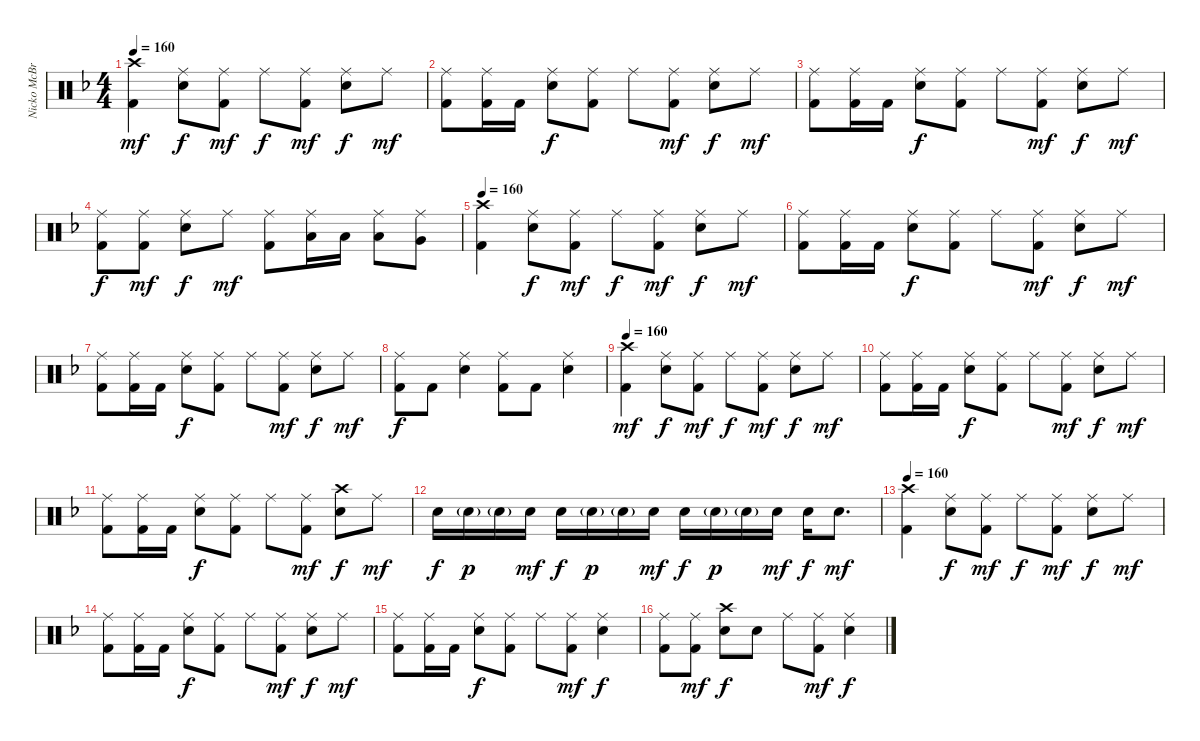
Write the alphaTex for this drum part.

\track ("Nicko McBrain" "Nicko McBr") {instrument percussion}
\staff {score}
\articulation defaults
\ts (4 4)
\tempo 160
\clef neutral
\ks f
("Crash high (hit)" "Kick (hit) 2").4{dy mf} ("Ride (middle)" "Electric Snare (hit)").8{dy f} ("Ride (middle)" "Kick (hit) 2").8{dy mf} "Ride (middle)".8{dy f} ("Ride (middle)" "Kick (hit) 2").8{dy mf} ("Ride (middle)" "Electric Snare (hit)").8{dy f} "Ride (middle)".8{dy mf} |
("Ride (middle)" "Kick (hit) 2").8 ("Ride (middle)" "Kick (hit) 2").16 "Kick (hit) 2".16 ("Ride (middle)" "Electric Snare (hit)").8{dy f} ("Ride (middle)" "Kick (hit) 2").8 "Ride (middle)".8 ("Ride (middle)" "Kick (hit) 2").8{dy mf} ("Ride (middle)" "Electric Snare (hit)").8{dy f} "Ride (middle)".8{dy mf} |
("Ride (middle)" "Kick (hit) 2").8 ("Ride (middle)" "Kick (hit) 2").16 "Kick (hit) 2".16 ("Ride (middle)" "Electric Snare (hit)").8{dy f} ("Ride (middle)" "Kick (hit) 2").8 "Ride (middle)".8 ("Ride (middle)" "Kick (hit) 2").8{dy mf} ("Ride (middle)" "Electric Snare (hit)").8{dy f} "Ride (middle)".8{dy mf} |
("Ride (middle)" "Kick (hit) 2").8{dy f} ("Ride (middle)" "Kick (hit) 2").8{dy mf} ("Ride (middle)" "Electric Snare (hit)").8{dy f} "Ride (middle)".8{dy mf} ("Ride (middle)" "Kick (hit) 2").8 ("Ride (middle)" "Low Tom (hit)").16 "Low Tom (hit)".16 ("Ride (middle)" "Low Tom (hit)").8 ("Ride (middle)" "Very Low Tom (hit)").8 |
\tempo 160
("Crash high (hit)" "Kick (hit) 2").4 ("Ride (middle)" "Electric Snare (hit)").8{dy f} ("Ride (middle)" "Kick (hit) 2").8{dy mf} "Ride (middle)".8{dy f} ("Ride (middle)" "Kick (hit) 2").8{dy mf} ("Ride (middle)" "Electric Snare (hit)").8{dy f} "Ride (middle)".8{dy mf} |
("Ride (middle)" "Kick (hit) 2").8 ("Ride (middle)" "Kick (hit) 2").16 "Kick (hit) 2".16 ("Ride (middle)" "Electric Snare (hit)").8{dy f} ("Ride (middle)" "Kick (hit) 2").8 "Ride (middle)".8 ("Ride (middle)" "Kick (hit) 2").8{dy mf} ("Ride (middle)" "Electric Snare (hit)").8{dy f} "Ride (middle)".8{dy mf} |
("Ride (middle)" "Kick (hit) 2").8 ("Ride (middle)" "Kick (hit) 2").16 "Kick (hit) 2".16 ("Ride (middle)" "Electric Snare (hit)").8{dy f} ("Ride (middle)" "Kick (hit) 2").8 "Ride (middle)".8 ("Ride (middle)" "Kick (hit) 2").8{dy mf} ("Ride (middle)" "Electric Snare (hit)").8{dy f} "Ride (middle)".8{dy mf} |
("Ride (middle)" "Kick (hit) 2").8{dy f} "Kick (hit) 2".8 ("Ride (middle)" "Electric Snare (hit)").4 ("Ride (middle)" "Kick (hit) 2").8 "Kick (hit) 2".8 ("Ride (middle)" "Electric Snare (hit)").4 |
\tempo 160
("Crash high (hit)" "Kick (hit) 2").4{dy mf} ("Ride (middle)" "Electric Snare (hit)").8{dy f} ("Ride (middle)" "Kick (hit) 2").8{dy mf} "Ride (middle)".8{dy f} ("Ride (middle)" "Kick (hit) 2").8{dy mf} ("Ride (middle)" "Electric Snare (hit)").8{dy f} "Ride (middle)".8{dy mf} |
("Ride (middle)" "Kick (hit) 2").8 ("Ride (middle)" "Kick (hit) 2").16 "Kick (hit) 2".16 ("Ride (middle)" "Electric Snare (hit)").8{dy f} ("Ride (middle)" "Kick (hit) 2").8 "Ride (middle)".8 ("Ride (middle)" "Kick (hit) 2").8{dy mf} ("Ride (middle)" "Electric Snare (hit)").8{dy f} "Ride (middle)".8{dy mf} |
("Ride (middle)" "Kick (hit) 2").8 ("Ride (middle)" "Kick (hit) 2").16 "Kick (hit) 2".16 ("Ride (middle)" "Electric Snare (hit)").8{dy f} ("Ride (middle)" "Kick (hit) 2").8 "Ride (middle)".8 ("Ride (middle)" "Kick (hit) 2").8{dy mf} ("Crash high (hit)" "Electric Snare (hit)").8{dy f} "Ride (middle)".8{dy mf} |
"Electric Snare (hit)".16{dy f} "Electric Snare (hit)"{g}.16{dy p} "Electric Snare (hit)"{g}.16 "Electric Snare (hit)".16{dy mf} "Electric Snare (hit)".16{dy f} "Electric Snare (hit)"{g}.16{dy p} "Electric Snare (hit)"{g}.16 "Electric Snare (hit)".16{dy mf} "Electric Snare (hit)".16{dy f} "Electric Snare (hit)"{g}.16{dy p} "Electric Snare (hit)"{g}.16 "Electric Snare (hit)".16{dy mf} "Electric Snare (hit)".16{dy f} "Electric Snare (hit)".8{d dy mf} |
\tempo 160
("Crash high (hit)" "Kick (hit) 2").4 ("Ride (middle)" "Electric Snare (hit)").8{dy f} ("Ride (middle)" "Kick (hit) 2").8{dy mf} "Ride (middle)".8{dy f} ("Ride (middle)" "Kick (hit) 2").8{dy mf} ("Ride (middle)" "Electric Snare (hit)").8{dy f} "Ride (middle)".8{dy mf} |
("Ride (middle)" "Kick (hit) 2").8 ("Ride (middle)" "Kick (hit) 2").16 "Kick (hit) 2".16 ("Ride (middle)" "Electric Snare (hit)").8{dy f} ("Ride (middle)" "Kick (hit) 2").8 "Ride (middle)".8 ("Ride (middle)" "Kick (hit) 2").8{dy mf} ("Ride (middle)" "Electric Snare (hit)").8{dy f} "Ride (middle)".8{dy mf} |
("Ride (middle)" "Kick (hit) 2").8 ("Ride (middle)" "Kick (hit) 2").16 "Kick (hit) 2".16 ("Ride (middle)" "Electric Snare (hit)").8{dy f} ("Ride (middle)" "Kick (hit) 2").8 "Ride (middle)".8 ("Ride (middle)" "Kick (hit) 2").8{dy mf} ("Ride (middle)" "Electric Snare (hit)").4{dy f} |
("Ride (middle)" "Kick (hit) 2").8 ("Ride (middle)" "Kick (hit) 2").8{dy mf} ("Crash high (hit)" "Electric Snare (hit)").8{dy f} "Electric Snare (hit)".8 "Ride (middle)".8 ("Ride (middle)" "Kick (hit) 2").8{dy mf} ("Ride (middle)" "Electric Snare (hit)").4{dy f}
